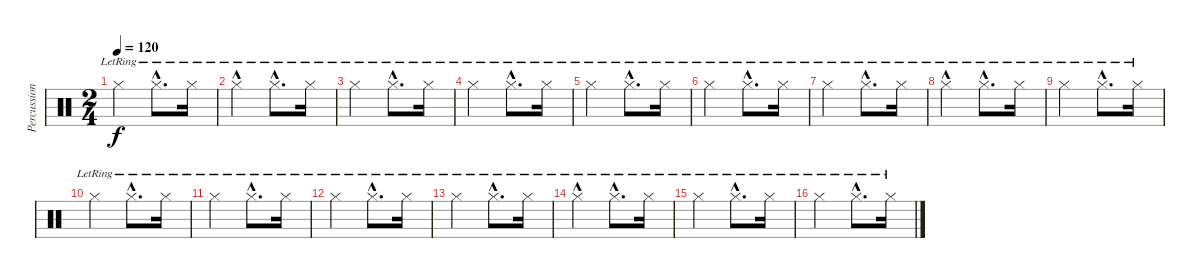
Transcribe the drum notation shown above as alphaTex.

\track ("Percussion" "Percussion") {instrument percussion}
\staff {score}
\articulation defaults
\ts (2 4)
\tempo 120
\clef neutral
\ks c "Hi-Hat (closed)"{lr}.4{dy f} "Hi-Hat (closed)"{hac lr}.8{d} "Hi-Hat (closed)"{lr}.16
|
"Hi-Hat (closed)"{hac lr}.4 "Hi-Hat (closed)"{hac lr}.8{d} "Hi-Hat (closed)"{lr}.16 |
"Hi-Hat (closed)"{lr}.4 "Hi-Hat (closed)"{hac lr}.8{d} "Hi-Hat (closed)"{lr}.16 |
"Hi-Hat (closed)"{lr}.4 "Hi-Hat (closed)"{hac lr}.8{d} "Hi-Hat (closed)"{lr}.16 |
"Hi-Hat (closed)"{lr}.4 "Hi-Hat (closed)"{hac lr}.8{d} "Hi-Hat (closed)"{lr}.16 |
"Hi-Hat (closed)"{lr}.4 "Hi-Hat (closed)"{hac lr}.8{d} "Hi-Hat (closed)"{lr}.16 |
"Hi-Hat (closed)"{lr}.4 "Hi-Hat (closed)"{hac lr}.8{d} "Hi-Hat (closed)"{lr}.16 |
"Hi-Hat (closed)"{hac lr}.4 "Hi-Hat (closed)"{hac lr}.8{d} "Hi-Hat (closed)"{lr}.16 |
"Hi-Hat (closed)"{lr}.4 "Hi-Hat (closed)"{hac lr}.8{d} "Hi-Hat (closed)"{lr}.16 |
"Hi-Hat (closed)"{lr}.4 "Hi-Hat (closed)"{hac lr}.8{d} "Hi-Hat (closed)"{lr}.16 |
"Hi-Hat (closed)"{lr}.4 "Hi-Hat (closed)"{hac lr}.8{d} "Hi-Hat (closed)"{lr}.16 |
"Hi-Hat (closed)"{lr}.4 "Hi-Hat (closed)"{hac lr}.8{d} "Hi-Hat (closed)"{lr}.16 |
"Hi-Hat (closed)"{lr}.4 "Hi-Hat (closed)"{hac lr}.8{d} "Hi-Hat (closed)"{lr}.16 |
"Hi-Hat (closed)"{hac lr}.4 "Hi-Hat (closed)"{hac lr}.8{d} "Hi-Hat (closed)"{lr}.16 |
"Hi-Hat (closed)"{lr}.4 "Hi-Hat (closed)"{hac lr}.8{d} "Hi-Hat (closed)"{lr}.16 |
"Hi-Hat (closed)"{lr}.4 "Hi-Hat (closed)"{hac lr}.8{d} "Hi-Hat (closed)"{lr}.16
